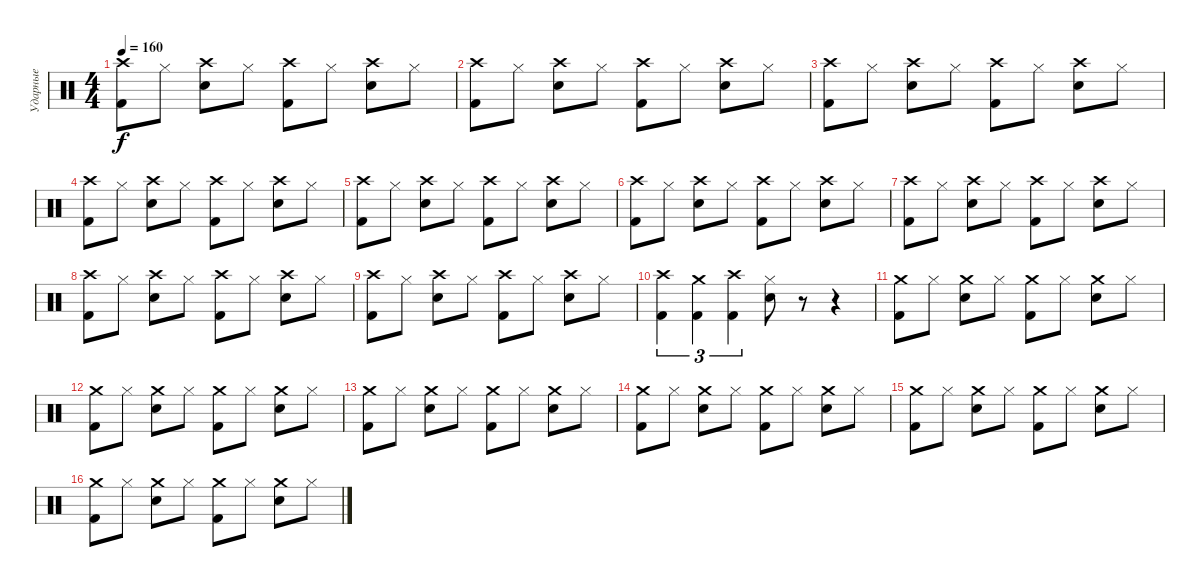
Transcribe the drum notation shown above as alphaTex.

\track ("Ударные" "Ударные") {instrument percussion}
\staff {score}
\articulation defaults
\ts (4 4)
\tempo 160
\clef neutral
\ks c
("Crash high (hit)" "Kick (hit) 2").8{dy f} "Hi-Hat (closed)".8 ("Crash high (hit)" "Snare (hit) 2").8 "Hi-Hat (closed)".8 ("Crash high (hit)" "Kick (hit) 2").8 "Hi-Hat (closed)".8 ("Crash high (hit)" "Snare (hit) 2").8 "Hi-Hat (closed)".8 |
("Crash high (hit)" "Kick (hit) 2").8 "Hi-Hat (closed)".8 ("Crash high (hit)" "Snare (hit) 2").8 "Hi-Hat (closed)".8 ("Crash high (hit)" "Kick (hit) 2").8 "Hi-Hat (closed)".8 ("Crash high (hit)" "Snare (hit) 2").8 "Hi-Hat (closed)".8 |
("Crash high (hit)" "Kick (hit) 2").8 "Hi-Hat (closed)".8 ("Crash high (hit)" "Snare (hit) 2").8 "Hi-Hat (closed)".8 ("Crash high (hit)" "Kick (hit) 2").8 "Hi-Hat (closed)".8 ("Crash high (hit)" "Snare (hit) 2").8 "Hi-Hat (closed)".8 |
("Crash high (hit)" "Kick (hit) 2").8 "Hi-Hat (closed)".8 ("Crash high (hit)" "Snare (hit) 2").8 "Hi-Hat (closed)".8 ("Crash high (hit)" "Kick (hit) 2").8 "Hi-Hat (closed)".8 ("Crash high (hit)" "Snare (hit) 2").8 "Hi-Hat (closed)".8 |
("Crash high (hit)" "Kick (hit) 2").8 "Hi-Hat (closed)".8 ("Crash high (hit)" "Snare (hit) 2").8 "Hi-Hat (closed)".8 ("Crash high (hit)" "Kick (hit) 2").8 "Hi-Hat (closed)".8 ("Crash high (hit)" "Snare (hit) 2").8 "Hi-Hat (closed)".8 |
("Crash high (hit)" "Kick (hit) 2").8 "Hi-Hat (closed)".8 ("Crash high (hit)" "Snare (hit) 2").8 "Hi-Hat (closed)".8 ("Crash high (hit)" "Kick (hit) 2").8 "Hi-Hat (closed)".8 ("Crash high (hit)" "Snare (hit) 2").8 "Hi-Hat (closed)".8 |
("Crash high (hit)" "Kick (hit) 2").8 "Hi-Hat (closed)".8 ("Crash high (hit)" "Snare (hit) 2").8 "Hi-Hat (closed)".8 ("Crash high (hit)" "Kick (hit) 2").8 "Hi-Hat (closed)".8 ("Crash high (hit)" "Snare (hit) 2").8 "Hi-Hat (closed)".8 |
("Crash high (hit)" "Kick (hit) 2").8 "Hi-Hat (closed)".8 ("Crash high (hit)" "Snare (hit) 2").8 "Hi-Hat (closed)".8 ("Crash high (hit)" "Kick (hit) 2").8 "Hi-Hat (closed)".8 ("Crash high (hit)" "Snare (hit) 2").8 "Hi-Hat (closed)".8 |
("Crash high (hit)" "Kick (hit) 2").8 "Hi-Hat (closed)".8 ("Crash high (hit)" "Snare (hit) 2").8 "Hi-Hat (closed)".8 ("Crash high (hit)" "Kick (hit) 2").8 "Hi-Hat (closed)".8 ("Crash high (hit)" "Snare (hit) 2").8 "Hi-Hat (closed)".8 |
("Crash high (hit)" "Kick (hit) 2").4{tu (3 2)} ("Crash medium (hit)" "Kick (hit) 2").4{tu (3 2)} ("Crash high (hit)" "Kick (hit) 2").4{tu (3 2)} ("Hi-Hat (closed)" "Snare (hit) 2").8 r.8 r.4 |
("Crash medium (hit)" "Kick (hit) 2").8 "Hi-Hat (closed)".8 ("Crash medium (hit)" "Snare (hit) 2").8 "Hi-Hat (closed)".8 ("Crash medium (hit)" "Kick (hit) 2").8 "Hi-Hat (closed)".8 ("Crash medium (hit)" "Snare (hit) 2").8 "Hi-Hat (closed)".8 |
("Crash medium (hit)" "Kick (hit) 2").8 "Hi-Hat (closed)".8 ("Crash medium (hit)" "Snare (hit) 2").8 "Hi-Hat (closed)".8 ("Crash medium (hit)" "Kick (hit) 2").8 "Hi-Hat (closed)".8 ("Crash medium (hit)" "Snare (hit) 2").8 "Hi-Hat (closed)".8 |
("Crash medium (hit)" "Kick (hit) 2").8 "Hi-Hat (closed)".8 ("Crash medium (hit)" "Snare (hit) 2").8 "Hi-Hat (closed)".8 ("Crash medium (hit)" "Kick (hit) 2").8 "Hi-Hat (closed)".8 ("Crash medium (hit)" "Snare (hit) 2").8 "Hi-Hat (closed)".8 |
("Crash medium (hit)" "Kick (hit) 2").8 "Hi-Hat (closed)".8 ("Crash medium (hit)" "Snare (hit) 2").8 "Hi-Hat (closed)".8 ("Crash medium (hit)" "Kick (hit) 2").8 "Hi-Hat (closed)".8 ("Crash medium (hit)" "Snare (hit) 2").8 "Hi-Hat (closed)".8 |
("Crash medium (hit)" "Kick (hit) 2").8 "Hi-Hat (closed)".8 ("Crash medium (hit)" "Snare (hit) 2").8 "Hi-Hat (closed)".8 ("Crash medium (hit)" "Kick (hit) 2").8 "Hi-Hat (closed)".8 ("Crash medium (hit)" "Snare (hit) 2").8 "Hi-Hat (closed)".8 |
("Crash medium (hit)" "Kick (hit) 2").8 "Hi-Hat (closed)".8 ("Crash medium (hit)" "Snare (hit) 2").8 "Hi-Hat (closed)".8 ("Crash medium (hit)" "Kick (hit) 2").8 "Hi-Hat (closed)".8 ("Crash medium (hit)" "Snare (hit) 2").8 "Hi-Hat (closed)".8
